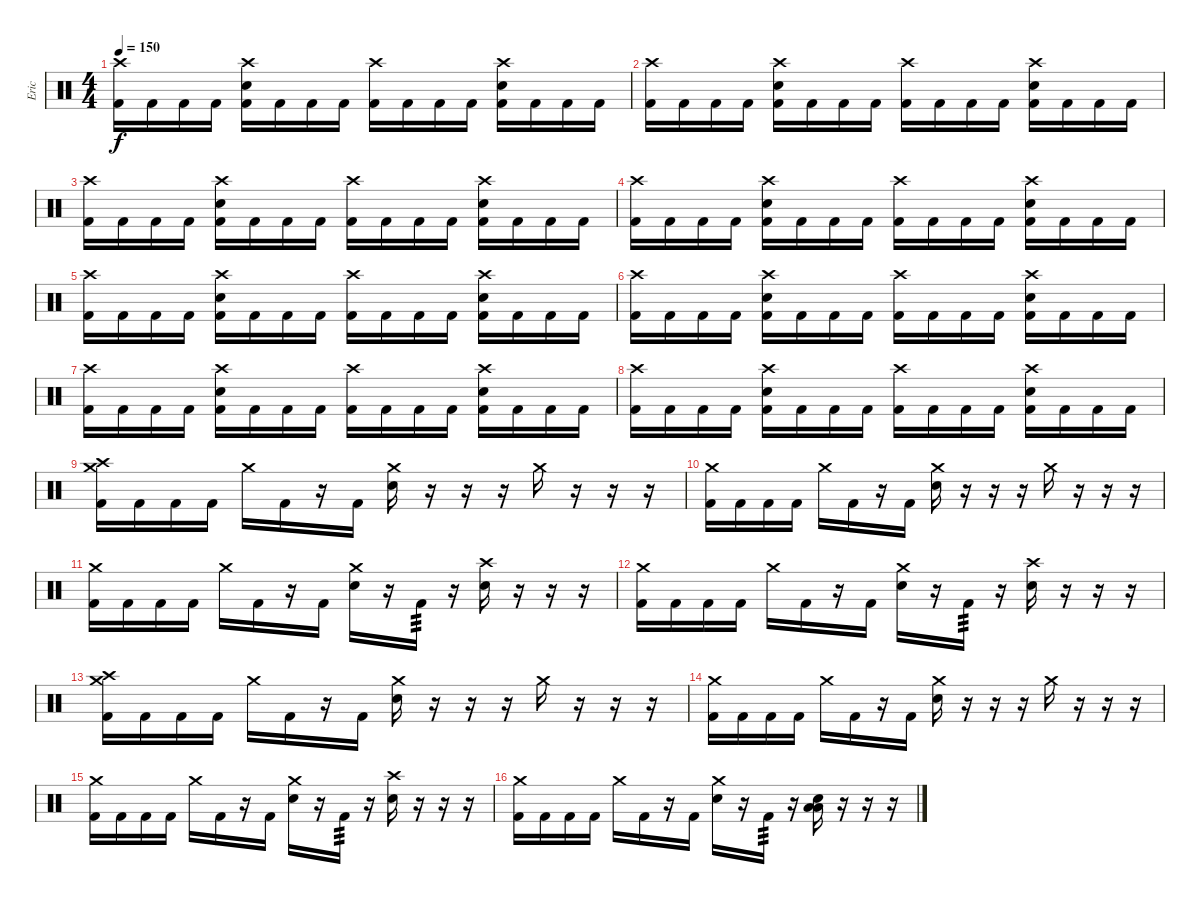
\track ("Eric" "Eric") {instrument percussion}
\staff {score}
\articulation defaults
\ts (4 4)
\tempo 150
\clef neutral
\ks c
("Crash high (hit)" "Kick (hit) 2").16{dy f} "Kick (hit) 2".16 "Kick (hit) 2".16 "Kick (hit) 2".16 ("Crash high (hit)" "Electric Snare (hit)" "Kick (hit) 2").16 "Kick (hit) 2".16 "Kick (hit) 2".16 "Kick (hit) 2".16 ("Crash high (hit)" "Kick (hit) 2").16 "Kick (hit) 2".16 "Kick (hit) 2".16 "Kick (hit) 2".16 ("Crash high (hit)" "Electric Snare (hit)" "Kick (hit) 2").16 "Kick (hit) 2".16 "Kick (hit) 2".16 "Kick (hit) 2".16 |
("Crash high (hit)" "Kick (hit) 2").16 "Kick (hit) 2".16 "Kick (hit) 2".16 "Kick (hit) 2".16 ("Crash high (hit)" "Electric Snare (hit)" "Kick (hit) 2").16 "Kick (hit) 2".16 "Kick (hit) 2".16 "Kick (hit) 2".16 ("Crash high (hit)" "Kick (hit) 2").16 "Kick (hit) 2".16 "Kick (hit) 2".16 "Kick (hit) 2".16 ("Crash high (hit)" "Electric Snare (hit)" "Kick (hit) 2").16 "Kick (hit) 2".16 "Kick (hit) 2".16 "Kick (hit) 2".16 |
("Crash high (hit)" "Kick (hit) 2").16 "Kick (hit) 2".16 "Kick (hit) 2".16 "Kick (hit) 2".16 ("Crash high (hit)" "Electric Snare (hit)" "Kick (hit) 2").16 "Kick (hit) 2".16 "Kick (hit) 2".16 "Kick (hit) 2".16 ("Crash high (hit)" "Kick (hit) 2").16 "Kick (hit) 2".16 "Kick (hit) 2".16 "Kick (hit) 2".16 ("Crash high (hit)" "Electric Snare (hit)" "Kick (hit) 2").16 "Kick (hit) 2".16 "Kick (hit) 2".16 "Kick (hit) 2".16 |
("Crash high (hit)" "Kick (hit) 2").16 "Kick (hit) 2".16 "Kick (hit) 2".16 "Kick (hit) 2".16 ("Crash high (hit)" "Electric Snare (hit)" "Kick (hit) 2").16 "Kick (hit) 2".16 "Kick (hit) 2".16 "Kick (hit) 2".16 ("Crash high (hit)" "Kick (hit) 2").16 "Kick (hit) 2".16 "Kick (hit) 2".16 "Kick (hit) 2".16 ("Crash high (hit)" "Electric Snare (hit)" "Kick (hit) 2").16 "Kick (hit) 2".16 "Kick (hit) 2".16 "Kick (hit) 2".16 |
("Crash high (hit)" "Kick (hit) 2").16 "Kick (hit) 2".16 "Kick (hit) 2".16 "Kick (hit) 2".16 ("Crash high (hit)" "Electric Snare (hit)" "Kick (hit) 2").16 "Kick (hit) 2".16 "Kick (hit) 2".16 "Kick (hit) 2".16 ("Crash high (hit)" "Kick (hit) 2").16 "Kick (hit) 2".16 "Kick (hit) 2".16 "Kick (hit) 2".16 ("Crash high (hit)" "Electric Snare (hit)" "Kick (hit) 2").16 "Kick (hit) 2".16 "Kick (hit) 2".16 "Kick (hit) 2".16 |
("Crash high (hit)" "Kick (hit) 2").16 "Kick (hit) 2".16 "Kick (hit) 2".16 "Kick (hit) 2".16 ("Crash high (hit)" "Electric Snare (hit)" "Kick (hit) 2").16 "Kick (hit) 2".16 "Kick (hit) 2".16 "Kick (hit) 2".16 ("Crash high (hit)" "Kick (hit) 2").16 "Kick (hit) 2".16 "Kick (hit) 2".16 "Kick (hit) 2".16 ("Crash high (hit)" "Electric Snare (hit)" "Kick (hit) 2").16 "Kick (hit) 2".16 "Kick (hit) 2".16 "Kick (hit) 2".16 |
("Crash high (hit)" "Kick (hit) 2").16 "Kick (hit) 2".16 "Kick (hit) 2".16 "Kick (hit) 2".16 ("Crash high (hit)" "Electric Snare (hit)" "Kick (hit) 2").16 "Kick (hit) 2".16 "Kick (hit) 2".16 "Kick (hit) 2".16 ("Crash high (hit)" "Kick (hit) 2").16 "Kick (hit) 2".16 "Kick (hit) 2".16 "Kick (hit) 2".16 ("Crash high (hit)" "Electric Snare (hit)" "Kick (hit) 2").16 "Kick (hit) 2".16 "Kick (hit) 2".16 "Kick (hit) 2".16 |
("Crash high (hit)" "Kick (hit) 2").16 "Kick (hit) 2".16 "Kick (hit) 2".16 "Kick (hit) 2".16 ("Crash high (hit)" "Electric Snare (hit)" "Kick (hit) 2").16 "Kick (hit) 2".16 "Kick (hit) 2".16 "Kick (hit) 2".16 ("Crash high (hit)" "Kick (hit) 2").16 "Kick (hit) 2".16 "Kick (hit) 2".16 "Kick (hit) 2".16 ("Crash high (hit)" "Electric Snare (hit)" "Kick (hit) 2").16 "Kick (hit) 2".16 "Kick (hit) 2".16 "Kick (hit) 2".16 |
("Crash medium (hit)" "Crash high (hit)" "Kick (hit) 2").16 "Kick (hit) 2".16 "Kick (hit) 2".16 "Kick (hit) 2".16 "Crash medium (hit)".16 "Kick (hit) 2".16 r.16 "Kick (hit) 2".16 ("Crash medium (hit)" "Electric Snare (hit)").16 r.16 r.16 r.16 "Crash medium (hit)".16 r.16 r.16 r.16 |
("Crash medium (hit)" "Kick (hit) 2").16 "Kick (hit) 2".16 "Kick (hit) 2".16 "Kick (hit) 2".16 "Crash medium (hit)".16 "Kick (hit) 2".16 r.16 "Kick (hit) 2".16 ("Crash medium (hit)" "Electric Snare (hit)").16 r.16 r.16 r.16 "Crash medium (hit)".16 r.16 r.16 r.16 |
("Crash medium (hit)" "Kick (hit) 2").16 "Kick (hit) 2".16 "Kick (hit) 2".16 "Kick (hit) 2".16 "Crash medium (hit)".16 "Kick (hit) 2".16 r.16 "Kick (hit) 2".16 ("Crash medium (hit)" "Electric Snare (hit)").16 r.16 "Kick (hit) 2".16{tp 3} r.16 ("Crash high (hit)" "Electric Snare (hit)").16 r.16 r.16 r.16 |
("Crash medium (hit)" "Kick (hit) 2").16 "Kick (hit) 2".16 "Kick (hit) 2".16 "Kick (hit) 2".16 "Crash medium (hit)".16 "Kick (hit) 2".16 r.16 "Kick (hit) 2".16 ("Crash medium (hit)" "Electric Snare (hit)").16 r.16 "Kick (hit) 2".16{tp 3} r.16 ("Crash high (hit)" "Electric Snare (hit)").16 r.16 r.16 r.16 |
("Crash medium (hit)" "Crash high (hit)" "Kick (hit) 2").16 "Kick (hit) 2".16 "Kick (hit) 2".16 "Kick (hit) 2".16 "Crash medium (hit)".16 "Kick (hit) 2".16 r.16 "Kick (hit) 2".16 ("Crash medium (hit)" "Electric Snare (hit)").16 r.16 r.16 r.16 "Crash medium (hit)".16 r.16 r.16 r.16 |
("Crash medium (hit)" "Kick (hit) 2").16 "Kick (hit) 2".16 "Kick (hit) 2".16 "Kick (hit) 2".16 "Crash medium (hit)".16 "Kick (hit) 2".16 r.16 "Kick (hit) 2".16 ("Crash medium (hit)" "Electric Snare (hit)").16 r.16 r.16 r.16 "Crash medium (hit)".16 r.16 r.16 r.16 |
("Crash medium (hit)" "Kick (hit) 2").16 "Kick (hit) 2".16 "Kick (hit) 2".16 "Kick (hit) 2".16 "Crash medium (hit)".16 "Kick (hit) 2".16 r.16 "Kick (hit) 2".16 ("Crash medium (hit)" "Electric Snare (hit)").16 r.16 "Kick (hit) 2".16{tp 3} r.16 ("Crash high (hit)" "Electric Snare (hit)").16 r.16 r.16 r.16 |
("Crash medium (hit)" "Kick (hit) 2").16 "Kick (hit) 2".16 "Kick (hit) 2".16 "Kick (hit) 2".16 "Crash medium (hit)".16 "Kick (hit) 2".16 r.16 "Kick (hit) 2".16 ("Crash medium (hit)" "Electric Snare (hit)").16 r.16 "Kick (hit) 2".16{tp 3} r.16 ("Low Tom (hit)" "Low Floor Tom (hit)" "Electric Snare (hit)").16 r.16 r.16 r.16
